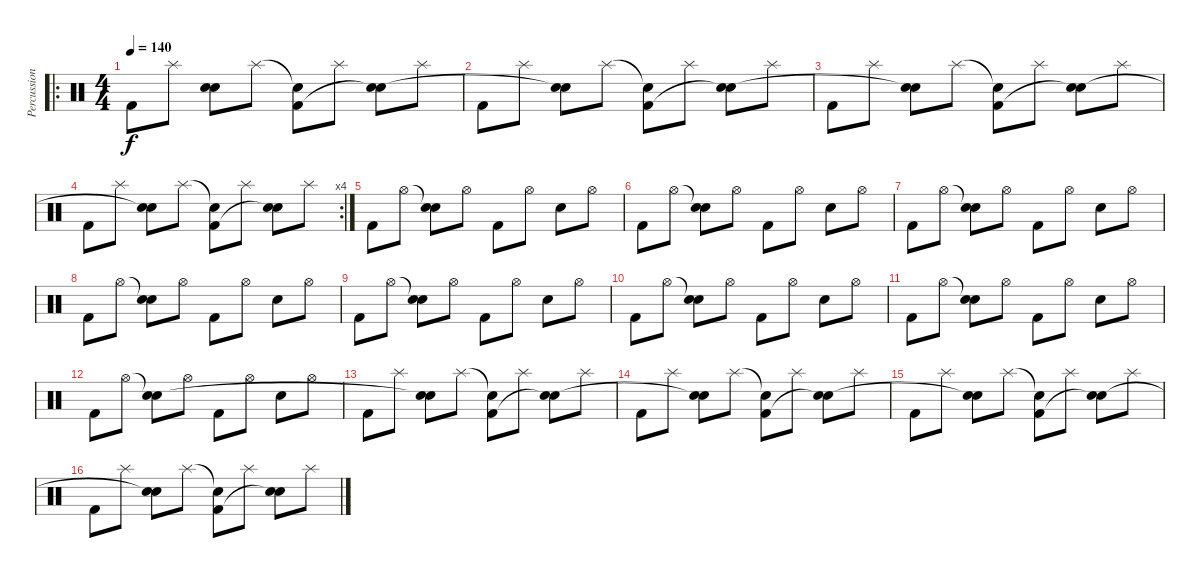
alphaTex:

\track ("Percussion" "Percussion") {instrument percussion}
\staff {score}
\articulation defaults
\ro
\ts (4 4)
\tempo 140
\clef neutral
\ks c "Kick (hit) 2".8{dy f} "Splash (hit)".8
("Snare (hit) 2" "Snare (hit)"{t}).8 "Splash (hit)".8 ("Snare (hit)"{t} "Kick (hit) 2").8 "Splash (hit)".8 ("Snare (hit) 2" "Snare (hit)"{t}).8 "Splash (hit)".8 |
"Kick (hit) 2".8 "Splash (hit)".8 ("Snare (hit) 2" "Snare (hit)"{t}).8 "Splash (hit)".8 ("Snare (hit)"{t} "Kick (hit) 2").8 "Splash (hit)".8 ("Snare (hit) 2" "Snare (hit)"{t}).8 "Splash (hit)".8 |
"Kick (hit) 2".8 "Splash (hit)".8 ("Snare (hit) 2" "Snare (hit)"{t}).8 "Splash (hit)".8 ("Snare (hit)"{t} "Kick (hit) 2").8 "Splash (hit)".8 ("Snare (hit) 2" "Snare (hit)"{t}).8 "Splash (hit)".8 |
\rc 4 "Kick (hit) 2".8 "Splash (hit)".8
("Snare (hit) 2" "Snare (hit)"{t}).8 "Splash (hit)".8 ("Snare (hit)"{t} "Kick (hit) 2").8 "Splash (hit)".8 ("Snare (hit) 2" "Snare (hit)"{t}).8 "Splash (hit)".8 |
"Kick (hit) 2".8 "Hi-Hat (open)".8 ("Snare (hit)"{t} "Snare (hit) 2").8 "Hi-Hat (open)".8 "Kick (hit) 2".8 "Hi-Hat (open)".8 "Snare (hit) 2".8 "Hi-Hat (open)".8 |
"Kick (hit) 2".8 "Hi-Hat (open)".8 ("Snare (hit)"{t} "Snare (hit) 2").8 "Hi-Hat (open)".8 "Kick (hit) 2".8 "Hi-Hat (open)".8 "Snare (hit) 2".8 "Hi-Hat (open)".8 |
"Kick (hit) 2".8 "Hi-Hat (open)".8 ("Snare (hit)"{t} "Snare (hit) 2").8 "Hi-Hat (open)".8 "Kick (hit) 2".8 "Hi-Hat (open)".8 "Snare (hit) 2".8 "Hi-Hat (open)".8 |
"Kick (hit) 2".8 "Hi-Hat (open)".8 ("Snare (hit)"{t} "Snare (hit) 2").8 "Hi-Hat (open)".8 "Kick (hit) 2".8 "Hi-Hat (open)".8 "Snare (hit) 2".8 "Hi-Hat (open)".8 |
"Kick (hit) 2".8 "Hi-Hat (open)".8 ("Snare (hit)"{t} "Snare (hit) 2").8 "Hi-Hat (open)".8 "Kick (hit) 2".8 "Hi-Hat (open)".8 "Snare (hit) 2".8 "Hi-Hat (open)".8 |
"Kick (hit) 2".8 "Hi-Hat (open)".8 ("Snare (hit)"{t} "Snare (hit) 2").8 "Hi-Hat (open)".8 "Kick (hit) 2".8 "Hi-Hat (open)".8 "Snare (hit) 2".8 "Hi-Hat (open)".8 |
"Kick (hit) 2".8 "Hi-Hat (open)".8 ("Snare (hit)"{t} "Snare (hit) 2").8 "Hi-Hat (open)".8 "Kick (hit) 2".8 "Hi-Hat (open)".8 "Snare (hit) 2".8 "Hi-Hat (open)".8 |
"Kick (hit) 2".8 "Hi-Hat (open)".8 ("Snare (hit)"{t} "Snare (hit) 2").8 "Hi-Hat (open)".8 "Kick (hit) 2".8 "Hi-Hat (open)".8 "Snare (hit) 2".8 "Hi-Hat (open)".8 |
"Kick (hit) 2".8 "Splash (hit)".8 ("Snare (hit) 2" "Snare (hit)"{t}).8 "Splash (hit)".8 ("Snare (hit)"{t} "Kick (hit) 2").8 "Splash (hit)".8 ("Snare (hit) 2" "Snare (hit)"{t}).8 "Splash (hit)".8 |
"Kick (hit) 2".8 "Splash (hit)".8 ("Snare (hit) 2" "Snare (hit)"{t}).8 "Splash (hit)".8 ("Snare (hit)"{t} "Kick (hit) 2").8 "Splash (hit)".8 ("Snare (hit) 2" "Snare (hit)"{t}).8 "Splash (hit)".8 |
"Kick (hit) 2".8 "Splash (hit)".8 ("Snare (hit) 2" "Snare (hit)"{t}).8 "Splash (hit)".8 ("Snare (hit)"{t} "Kick (hit) 2").8 "Splash (hit)".8 ("Snare (hit) 2" "Snare (hit)"{t}).8 "Splash (hit)".8 |
"Kick (hit) 2".8 "Splash (hit)".8 ("Snare (hit) 2" "Snare (hit)"{t}).8 "Splash (hit)".8 ("Snare (hit)"{t} "Kick (hit) 2").8 "Splash (hit)".8 ("Snare (hit) 2" "Snare (hit)"{t}).8 "Splash (hit)".8
